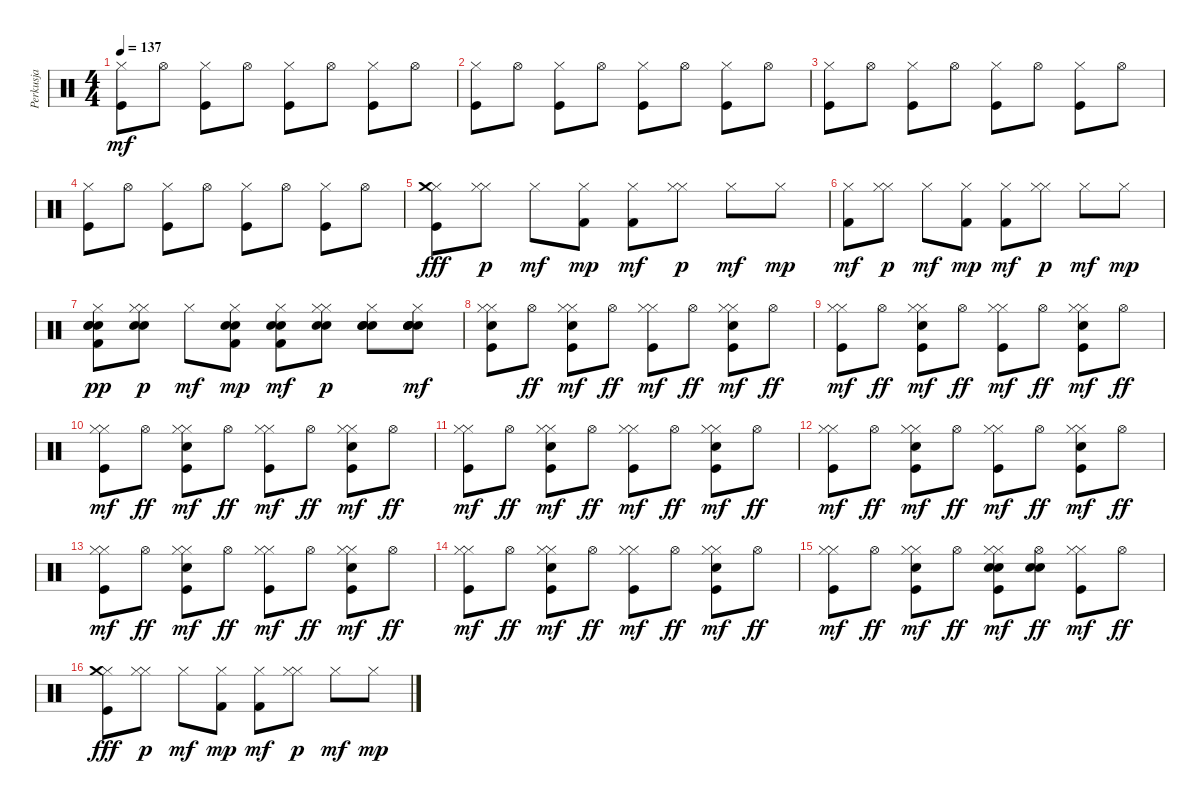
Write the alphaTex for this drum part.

\track ("Perkusja" "Perkusja") {instrument percussion}
\staff {score}
\articulation defaults
\ts (4 4)
\tempo 137
\clef neutral
\ks c
("Kick (hit)" "Hi-Hat (closed)").8{dy mf} "Hi-Hat (open)".8 ("Kick (hit)" "Hi-Hat (closed)").8 "Hi-Hat (open)".8 ("Kick (hit)" "Hi-Hat (closed)").8 "Hi-Hat (open)".8 ("Kick (hit)" "Hi-Hat (closed)").8 "Hi-Hat (open)".8 |
("Kick (hit)" "Hi-Hat (closed)").8 "Hi-Hat (open)".8 ("Kick (hit)" "Hi-Hat (closed)").8 "Hi-Hat (open)".8 ("Kick (hit)" "Hi-Hat (closed)").8 "Hi-Hat (open)".8 ("Kick (hit)" "Hi-Hat (closed)").8 "Hi-Hat (open)".8 |
("Kick (hit)" "Hi-Hat (closed)").8 "Hi-Hat (open)".8 ("Kick (hit)" "Hi-Hat (closed)").8 "Hi-Hat (open)".8 ("Kick (hit)" "Hi-Hat (closed)").8 "Hi-Hat (open)".8 ("Kick (hit)" "Hi-Hat (closed)").8 "Hi-Hat (open)".8 |
("Kick (hit)" "Hi-Hat (closed)").8 "Hi-Hat (open)".8 ("Kick (hit)" "Hi-Hat (closed)").8 "Hi-Hat (open)".8 ("Kick (hit)" "Hi-Hat (closed)").8 "Hi-Hat (open)".8 ("Kick (hit)" "Hi-Hat (closed)").8 "Hi-Hat (open)".8 |
("Hi-Hat (closed)" "Crash medium (hit)" "Kick (hit)").8{dy fff} ("Hi-Hat (closed)" "Hi-Hat (closed)").8{dy p} "Hi-Hat (closed)".8{dy mf} ("Hi-Hat (closed)" "Kick (hit) 2").8{dy mp} ("Hi-Hat (closed)" "Kick (hit) 2").8{dy mf} ("Hi-Hat (closed)" "Hi-Hat (closed)").8{dy p} "Hi-Hat (closed)".8{dy mf} "Hi-Hat (closed)".8{dy mp} |
("Hi-Hat (closed)" "Kick (hit) 2").8{dy mf} ("Hi-Hat (closed)" "Hi-Hat (closed)").8{dy p} "Hi-Hat (closed)".8{dy mf} ("Hi-Hat (closed)" "Kick (hit) 2").8{dy mp} ("Hi-Hat (closed)" "Kick (hit) 2").8{dy mf} ("Hi-Hat (closed)" "Hi-Hat (closed)").8{dy p} "Hi-Hat (closed)".8{dy mf} "Hi-Hat (closed)".8{dy mp} |
("Snare (hit) 2" "Kick (hit) 2" "Hi-Hat (closed)" "Snare (hit) 2" "Snare (hit) 2").8{dy pp} ("Snare (hit) 2" "Snare (hit) 2" "Hi-Hat (closed)" "Hi-Hat (closed)").8{dy p} "Hi-Hat (closed)".8{dy mf} ("Snare (hit) 2" "Hi-Hat (closed)" "Kick (hit) 2" "Snare (hit) 2").8{dy mp} ("Snare (hit) 2" "Hi-Hat (closed)" "Kick (hit) 2" "Snare (hit) 2").8{dy mf} ("Snare (hit) 2" "Hi-Hat (closed)" "Snare (hit) 2" "Hi-Hat (closed)").8{dy p} ("Snare (hit) 2" "Hi-Hat (closed)" "Snare (hit) 2" "Snare (hit) 2").8 ("Snare (hit) 2" "Snare (hit) 2" "Hi-Hat (closed)" "Snare (hit) 2" "Snare (hit) 2").8{dy mf} |
("Snare (hit) 2" "Kick (hit)" "Hi-Hat (closed)" "Hi-Hat (closed)").8 "Hi-Hat (open)".8{dy ff} ("Electric Snare (hit)" "Kick (hit)" "Hi-Hat (closed)" "Hi-Hat (closed)").8{dy mf} "Hi-Hat (open)".8{dy ff} ("Kick (hit)" "Hi-Hat (closed)" "Hi-Hat (closed)").8{dy mf} "Hi-Hat (open)".8{dy ff} ("Electric Snare (hit)" "Kick (hit)" "Hi-Hat (closed)" "Hi-Hat (closed)").8{dy mf} "Hi-Hat (open)".8{dy ff} |
("Kick (hit)" "Hi-Hat (closed)" "Hi-Hat (closed)").8{dy mf} "Hi-Hat (open)".8{dy ff} ("Electric Snare (hit)" "Kick (hit)" "Hi-Hat (closed)" "Hi-Hat (closed)").8{dy mf} "Hi-Hat (open)".8{dy ff} ("Kick (hit)" "Hi-Hat (closed)" "Hi-Hat (closed)").8{dy mf} "Hi-Hat (open)".8{dy ff} ("Electric Snare (hit)" "Kick (hit)" "Hi-Hat (closed)" "Hi-Hat (closed)").8{dy mf} "Hi-Hat (open)".8{dy ff} |
("Kick (hit)" "Hi-Hat (closed)" "Hi-Hat (closed)").8{dy mf} "Hi-Hat (open)".8{dy ff} ("Electric Snare (hit)" "Kick (hit)" "Hi-Hat (closed)" "Hi-Hat (closed)").8{dy mf} "Hi-Hat (open)".8{dy ff} ("Kick (hit)" "Hi-Hat (closed)" "Hi-Hat (closed)").8{dy mf} "Hi-Hat (open)".8{dy ff} ("Electric Snare (hit)" "Kick (hit)" "Hi-Hat (closed)" "Hi-Hat (closed)").8{dy mf} "Hi-Hat (open)".8{dy ff} |
("Kick (hit)" "Hi-Hat (closed)" "Hi-Hat (closed)").8{dy mf} "Hi-Hat (open)".8{dy ff} ("Electric Snare (hit)" "Kick (hit)" "Hi-Hat (closed)" "Hi-Hat (closed)").8{dy mf} "Hi-Hat (open)".8{dy ff} ("Kick (hit)" "Hi-Hat (closed)" "Hi-Hat (closed)").8{dy mf} "Hi-Hat (open)".8{dy ff} ("Electric Snare (hit)" "Kick (hit)" "Hi-Hat (closed)" "Hi-Hat (closed)").8{dy mf} "Hi-Hat (open)".8{dy ff} |
("Kick (hit)" "Hi-Hat (closed)" "Hi-Hat (closed)").8{dy mf} "Hi-Hat (open)".8{dy ff} ("Electric Snare (hit)" "Kick (hit)" "Hi-Hat (closed)" "Hi-Hat (closed)").8{dy mf} "Hi-Hat (open)".8{dy ff} ("Kick (hit)" "Hi-Hat (closed)" "Hi-Hat (closed)").8{dy mf} "Hi-Hat (open)".8{dy ff} ("Electric Snare (hit)" "Kick (hit)" "Hi-Hat (closed)" "Hi-Hat (closed)").8{dy mf} "Hi-Hat (open)".8{dy ff} |
("Kick (hit)" "Hi-Hat (closed)" "Hi-Hat (closed)").8{dy mf} "Hi-Hat (open)".8{dy ff} ("Electric Snare (hit)" "Kick (hit)" "Hi-Hat (closed)" "Hi-Hat (closed)").8{dy mf} "Hi-Hat (open)".8{dy ff} ("Kick (hit)" "Hi-Hat (closed)" "Hi-Hat (closed)").8{dy mf} "Hi-Hat (open)".8{dy ff} ("Electric Snare (hit)" "Kick (hit)" "Hi-Hat (closed)" "Hi-Hat (closed)").8{dy mf} "Hi-Hat (open)".8{dy ff} |
("Kick (hit)" "Hi-Hat (closed)" "Hi-Hat (closed)").8{dy mf} "Hi-Hat (open)".8{dy ff} ("Electric Snare (hit)" "Kick (hit)" "Hi-Hat (closed)" "Hi-Hat (closed)").8{dy mf} "Hi-Hat (open)".8{dy ff} ("Kick (hit)" "Hi-Hat (closed)" "Hi-Hat (closed)").8{dy mf} "Hi-Hat (open)".8{dy ff} ("Electric Snare (hit)" "Kick (hit)" "Hi-Hat (closed)" "Hi-Hat (closed)").8{dy mf} "Hi-Hat (open)".8{dy ff} |
("Kick (hit)" "Hi-Hat (closed)" "Hi-Hat (closed)").8{dy mf} "Hi-Hat (open)".8{dy ff} ("Electric Snare (hit)" "Kick (hit)" "Hi-Hat (closed)" "Hi-Hat (closed)").8{dy mf} "Hi-Hat (open)".8{dy ff} ("Electric Snare (hit)" "Kick (hit)" "Hi-Hat (closed)" "Electric Snare (hit)" "Hi-Hat (closed)").8{dy mf} ("Electric Snare (hit)" "Hi-Hat (open)" "Electric Snare (hit)").8{dy ff} ("Kick (hit)" "Hi-Hat (closed)" "Hi-Hat (closed)").8{dy mf} "Hi-Hat (open)".8{dy ff} |
("Hi-Hat (closed)" "Crash medium (hit)" "Kick (hit)").8{dy fff} ("Hi-Hat (closed)" "Hi-Hat (closed)").8{dy p} "Hi-Hat (closed)".8{dy mf} ("Hi-Hat (closed)" "Kick (hit) 2").8{dy mp} ("Hi-Hat (closed)" "Kick (hit) 2").8{dy mf} ("Hi-Hat (closed)" "Hi-Hat (closed)").8{dy p} "Hi-Hat (closed)".8{dy mf} "Hi-Hat (closed)".8{dy mp}
